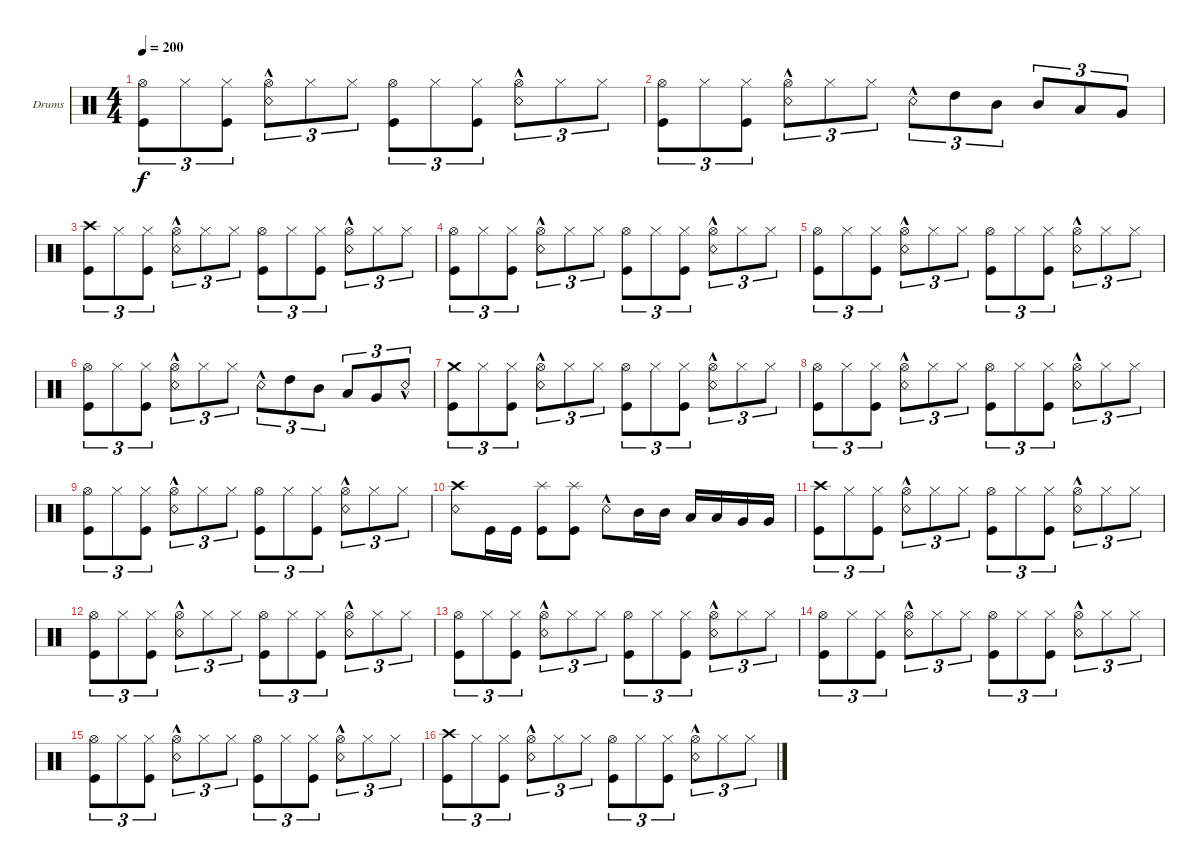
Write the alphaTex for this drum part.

\bracketExtendMode groupsimilarinstruments
\firstSystemTrackNameOrientation horizontal
\otherSystemsTrackNameOrientation horizontal
\track ("Drumkit" "Drums") {instrument percussion}
\staff {score}
\articulation defaults
\ts (4 4)
\tempo 200
\clef neutral
\ks c
("Kick (hit)" "Hi-Hat (open)").8{tu (3 2) dy f} "Hi-Hat (closed)".8{tu (3 2)} ("Kick (hit)" "Hi-Hat (closed)").8{tu (3 2)} ("Snare (rim shot)"{hac} "Hi-Hat (open)").8{tu (3 2)} "Hi-Hat (closed)".8{tu (3 2)} "Hi-Hat (closed)".8{tu (3 2)} ("Kick (hit)" "Hi-Hat (open)").8{tu (3 2)} "Hi-Hat (closed)".8{tu (3 2)} ("Kick (hit)" "Hi-Hat (closed)").8{tu (3 2)} ("Snare (rim shot)"{hac} "Hi-Hat (open)").8{tu (3 2)} "Hi-Hat (closed)".8{tu (3 2)} "Hi-Hat (closed)".8{tu (3 2)} |
("Kick (hit)" "Hi-Hat (open)").8{tu (3 2)} "Hi-Hat (closed)".8{tu (3 2)} ("Kick (hit)" "Hi-Hat (closed)").8{tu (3 2)} ("Snare (rim shot)"{hac} "Hi-Hat (open)").8{tu (3 2)} "Hi-Hat (closed)".8{tu (3 2)} "Hi-Hat (closed)".8{tu (3 2)} "Snare (rim shot)"{hac}.8{tu (3 2)} "High Tom (hit)".8{tu (3 2)} "Mid Tom (hit)".8{tu (3 2)} "Mid Tom (hit)".8{tu (3 2)} "Low Tom (hit)".8{tu (3 2)} "Very Low Tom (hit)".8{tu (3 2)} |
("Kick (hit)" "Crash high (hit)").8{tu (3 2)} "Hi-Hat (closed)".8{tu (3 2)} ("Kick (hit)" "Hi-Hat (closed)").8{tu (3 2)} ("Snare (rim shot)"{hac} "Hi-Hat (open)").8{tu (3 2)} "Hi-Hat (closed)".8{tu (3 2)} "Hi-Hat (closed)".8{tu (3 2)} ("Kick (hit)" "Hi-Hat (open)").8{tu (3 2)} "Hi-Hat (closed)".8{tu (3 2)} ("Kick (hit)" "Hi-Hat (closed)").8{tu (3 2)} ("Snare (rim shot)"{hac} "Hi-Hat (open)").8{tu (3 2)} "Hi-Hat (closed)".8{tu (3 2)} "Hi-Hat (closed)".8{tu (3 2)} |
("Kick (hit)" "Hi-Hat (open)").8{tu (3 2)} "Hi-Hat (closed)".8{tu (3 2)} ("Kick (hit)" "Hi-Hat (closed)").8{tu (3 2)} ("Snare (rim shot)"{hac} "Hi-Hat (open)").8{tu (3 2)} "Hi-Hat (closed)".8{tu (3 2)} "Hi-Hat (closed)".8{tu (3 2)} ("Kick (hit)" "Hi-Hat (open)").8{tu (3 2)} "Hi-Hat (closed)".8{tu (3 2)} ("Kick (hit)" "Hi-Hat (closed)").8{tu (3 2)} ("Snare (rim shot)"{hac} "Hi-Hat (open)").8{tu (3 2)} "Hi-Hat (closed)".8{tu (3 2)} "Hi-Hat (closed)".8{tu (3 2)} |
("Kick (hit)" "Hi-Hat (open)").8{tu (3 2)} "Hi-Hat (closed)".8{tu (3 2)} ("Kick (hit)" "Hi-Hat (closed)").8{tu (3 2)} ("Snare (rim shot)"{hac} "Hi-Hat (open)").8{tu (3 2)} "Hi-Hat (closed)".8{tu (3 2)} "Hi-Hat (closed)".8{tu (3 2)} ("Kick (hit)" "Hi-Hat (open)").8{tu (3 2)} "Hi-Hat (closed)".8{tu (3 2)} ("Kick (hit)" "Hi-Hat (closed)").8{tu (3 2)} ("Snare (rim shot)"{hac} "Hi-Hat (open)").8{tu (3 2)} "Hi-Hat (closed)".8{tu (3 2)} "Hi-Hat (closed)".8{tu (3 2)} |
("Kick (hit)" "Hi-Hat (open)").8{tu (3 2)} "Hi-Hat (closed)".8{tu (3 2)} ("Kick (hit)" "Hi-Hat (closed)").8{tu (3 2)} ("Snare (rim shot)"{hac} "Hi-Hat (open)").8{tu (3 2)} "Hi-Hat (closed)".8{tu (3 2)} "Hi-Hat (closed)".8{tu (3 2)} "Snare (rim shot)"{hac}.8{tu (3 2)} "High Tom (hit)".8{tu (3 2)} "Mid Tom (hit)".8{tu (3 2)} "Low Tom (hit)".8{tu (3 2)} "Very Low Tom (hit)".8{tu (3 2)} "Snare (rim shot)"{hac}.8{tu (3 2)} |
("Kick (hit)" "Crash medium (hit)").8{tu (3 2)} "Hi-Hat (closed)".8{tu (3 2)} ("Kick (hit)" "Hi-Hat (closed)").8{tu (3 2)} ("Snare (rim shot)"{hac} "Hi-Hat (open)").8{tu (3 2)} "Hi-Hat (closed)".8{tu (3 2)} "Hi-Hat (closed)".8{tu (3 2)} ("Kick (hit)" "Hi-Hat (open)").8{tu (3 2)} "Hi-Hat (closed)".8{tu (3 2)} ("Kick (hit)" "Hi-Hat (closed)").8{tu (3 2)} ("Snare (rim shot)"{hac} "Hi-Hat (open)").8{tu (3 2)} "Hi-Hat (closed)".8{tu (3 2)} "Hi-Hat (closed)".8{tu (3 2)} |
("Kick (hit)" "Hi-Hat (open)").8{tu (3 2)} "Hi-Hat (closed)".8{tu (3 2)} ("Kick (hit)" "Hi-Hat (closed)").8{tu (3 2)} ("Snare (rim shot)"{hac} "Hi-Hat (open)").8{tu (3 2)} "Hi-Hat (closed)".8{tu (3 2)} "Hi-Hat (closed)".8{tu (3 2)} ("Kick (hit)" "Hi-Hat (open)").8{tu (3 2)} "Hi-Hat (closed)".8{tu (3 2)} ("Kick (hit)" "Hi-Hat (closed)").8{tu (3 2)} ("Snare (rim shot)"{hac} "Hi-Hat (open)").8{tu (3 2)} "Hi-Hat (closed)".8{tu (3 2)} "Hi-Hat (closed)".8{tu (3 2)} |
("Kick (hit)" "Hi-Hat (open)").8{tu (3 2)} "Hi-Hat (closed)".8{tu (3 2)} ("Kick (hit)" "Hi-Hat (closed)").8{tu (3 2)} ("Snare (rim shot)"{hac} "Hi-Hat (open)").8{tu (3 2)} "Hi-Hat (closed)".8{tu (3 2)} "Hi-Hat (closed)".8{tu (3 2)} ("Kick (hit)" "Hi-Hat (open)").8{tu (3 2)} "Hi-Hat (closed)".8{tu (3 2)} ("Kick (hit)" "Hi-Hat (closed)").8{tu (3 2)} ("Snare (rim shot)"{hac} "Hi-Hat (open)").8{tu (3 2)} "Hi-Hat (closed)".8{tu (3 2)} "Hi-Hat (closed)".8{tu (3 2)} |
("Snare (rim shot)" "Crash high (hit)").8 "Kick (hit)".16 "Kick (hit)".16 ("Kick (hit)" "Splash (hit)").8 ("Kick (hit)" "Splash (hit)").8 "Snare (rim shot)"{hac}.8 "Mid Tom (hit)".16 "Mid Tom (hit)".16 "Low Tom (hit)".16 "Low Tom (hit)".16 "Very Low Tom (hit)".16 "Very Low Tom (hit)".16 |
("Kick (hit)" "Crash high (hit)").8{tu (3 2)} "Hi-Hat (closed)".8{tu (3 2)} ("Kick (hit)" "Hi-Hat (closed)").8{tu (3 2)} ("Snare (rim shot)"{hac} "Hi-Hat (open)").8{tu (3 2)} "Hi-Hat (closed)".8{tu (3 2)} "Hi-Hat (closed)".8{tu (3 2)} ("Kick (hit)" "Hi-Hat (open)").8{tu (3 2)} "Hi-Hat (closed)".8{tu (3 2)} ("Kick (hit)" "Hi-Hat (closed)").8{tu (3 2)} ("Snare (rim shot)"{hac} "Hi-Hat (open)").8{tu (3 2)} "Hi-Hat (closed)".8{tu (3 2)} "Hi-Hat (closed)".8{tu (3 2)} |
("Kick (hit)" "Hi-Hat (open)").8{tu (3 2)} "Hi-Hat (closed)".8{tu (3 2)} ("Kick (hit)" "Hi-Hat (closed)").8{tu (3 2)} ("Snare (rim shot)"{hac} "Hi-Hat (open)").8{tu (3 2)} "Hi-Hat (closed)".8{tu (3 2)} "Hi-Hat (closed)".8{tu (3 2)} ("Kick (hit)" "Hi-Hat (open)").8{tu (3 2)} "Hi-Hat (closed)".8{tu (3 2)} ("Kick (hit)" "Hi-Hat (closed)").8{tu (3 2)} ("Snare (rim shot)"{hac} "Hi-Hat (open)").8{tu (3 2)} "Hi-Hat (closed)".8{tu (3 2)} "Hi-Hat (closed)".8{tu (3 2)} |
("Kick (hit)" "Hi-Hat (open)").8{tu (3 2)} "Hi-Hat (closed)".8{tu (3 2)} ("Kick (hit)" "Hi-Hat (closed)").8{tu (3 2)} ("Snare (rim shot)"{hac} "Hi-Hat (open)").8{tu (3 2)} "Hi-Hat (closed)".8{tu (3 2)} "Hi-Hat (closed)".8{tu (3 2)} ("Kick (hit)" "Hi-Hat (open)").8{tu (3 2)} "Hi-Hat (closed)".8{tu (3 2)} ("Kick (hit)" "Hi-Hat (closed)").8{tu (3 2)} ("Snare (rim shot)"{hac} "Hi-Hat (open)").8{tu (3 2)} "Hi-Hat (closed)".8{tu (3 2)} "Hi-Hat (closed)".8{tu (3 2)} |
("Kick (hit)" "Hi-Hat (open)").8{tu (3 2)} "Hi-Hat (closed)".8{tu (3 2)} ("Kick (hit)" "Hi-Hat (closed)").8{tu (3 2)} ("Snare (rim shot)"{hac} "Hi-Hat (open)").8{tu (3 2)} "Hi-Hat (closed)".8{tu (3 2)} "Hi-Hat (closed)".8{tu (3 2)} ("Kick (hit)" "Hi-Hat (open)").8{tu (3 2)} "Hi-Hat (closed)".8{tu (3 2)} ("Kick (hit)" "Hi-Hat (closed)").8{tu (3 2)} ("Snare (rim shot)"{hac} "Hi-Hat (open)").8{tu (3 2)} "Hi-Hat (closed)".8{tu (3 2)} "Hi-Hat (closed)".8{tu (3 2)} |
("Kick (hit)" "Hi-Hat (open)").8{tu (3 2)} "Hi-Hat (closed)".8{tu (3 2)} ("Kick (hit)" "Hi-Hat (closed)").8{tu (3 2)} ("Snare (rim shot)"{hac} "Hi-Hat (open)").8{tu (3 2)} "Hi-Hat (closed)".8{tu (3 2)} "Hi-Hat (closed)".8{tu (3 2)} ("Kick (hit)" "Hi-Hat (open)").8{tu (3 2)} "Hi-Hat (closed)".8{tu (3 2)} ("Kick (hit)" "Hi-Hat (closed)").8{tu (3 2)} ("Snare (rim shot)"{hac} "Hi-Hat (open)").8{tu (3 2)} "Hi-Hat (closed)".8{tu (3 2)} "Hi-Hat (closed)".8{tu (3 2)} |
("Kick (hit)" "Crash high (hit)").8{tu (3 2)} "Hi-Hat (closed)".8{tu (3 2)} ("Kick (hit)" "Hi-Hat (closed)").8{tu (3 2)} ("Snare (rim shot)"{hac} "Hi-Hat (open)").8{tu (3 2)} "Hi-Hat (closed)".8{tu (3 2)} "Hi-Hat (closed)".8{tu (3 2)} ("Kick (hit)" "Hi-Hat (open)").8{tu (3 2)} "Hi-Hat (closed)".8{tu (3 2)} ("Kick (hit)" "Hi-Hat (closed)").8{tu (3 2)} ("Snare (rim shot)"{hac} "Hi-Hat (open)").8{tu (3 2)} "Hi-Hat (closed)".8{tu (3 2)} "Hi-Hat (closed)".8{tu (3 2)}
